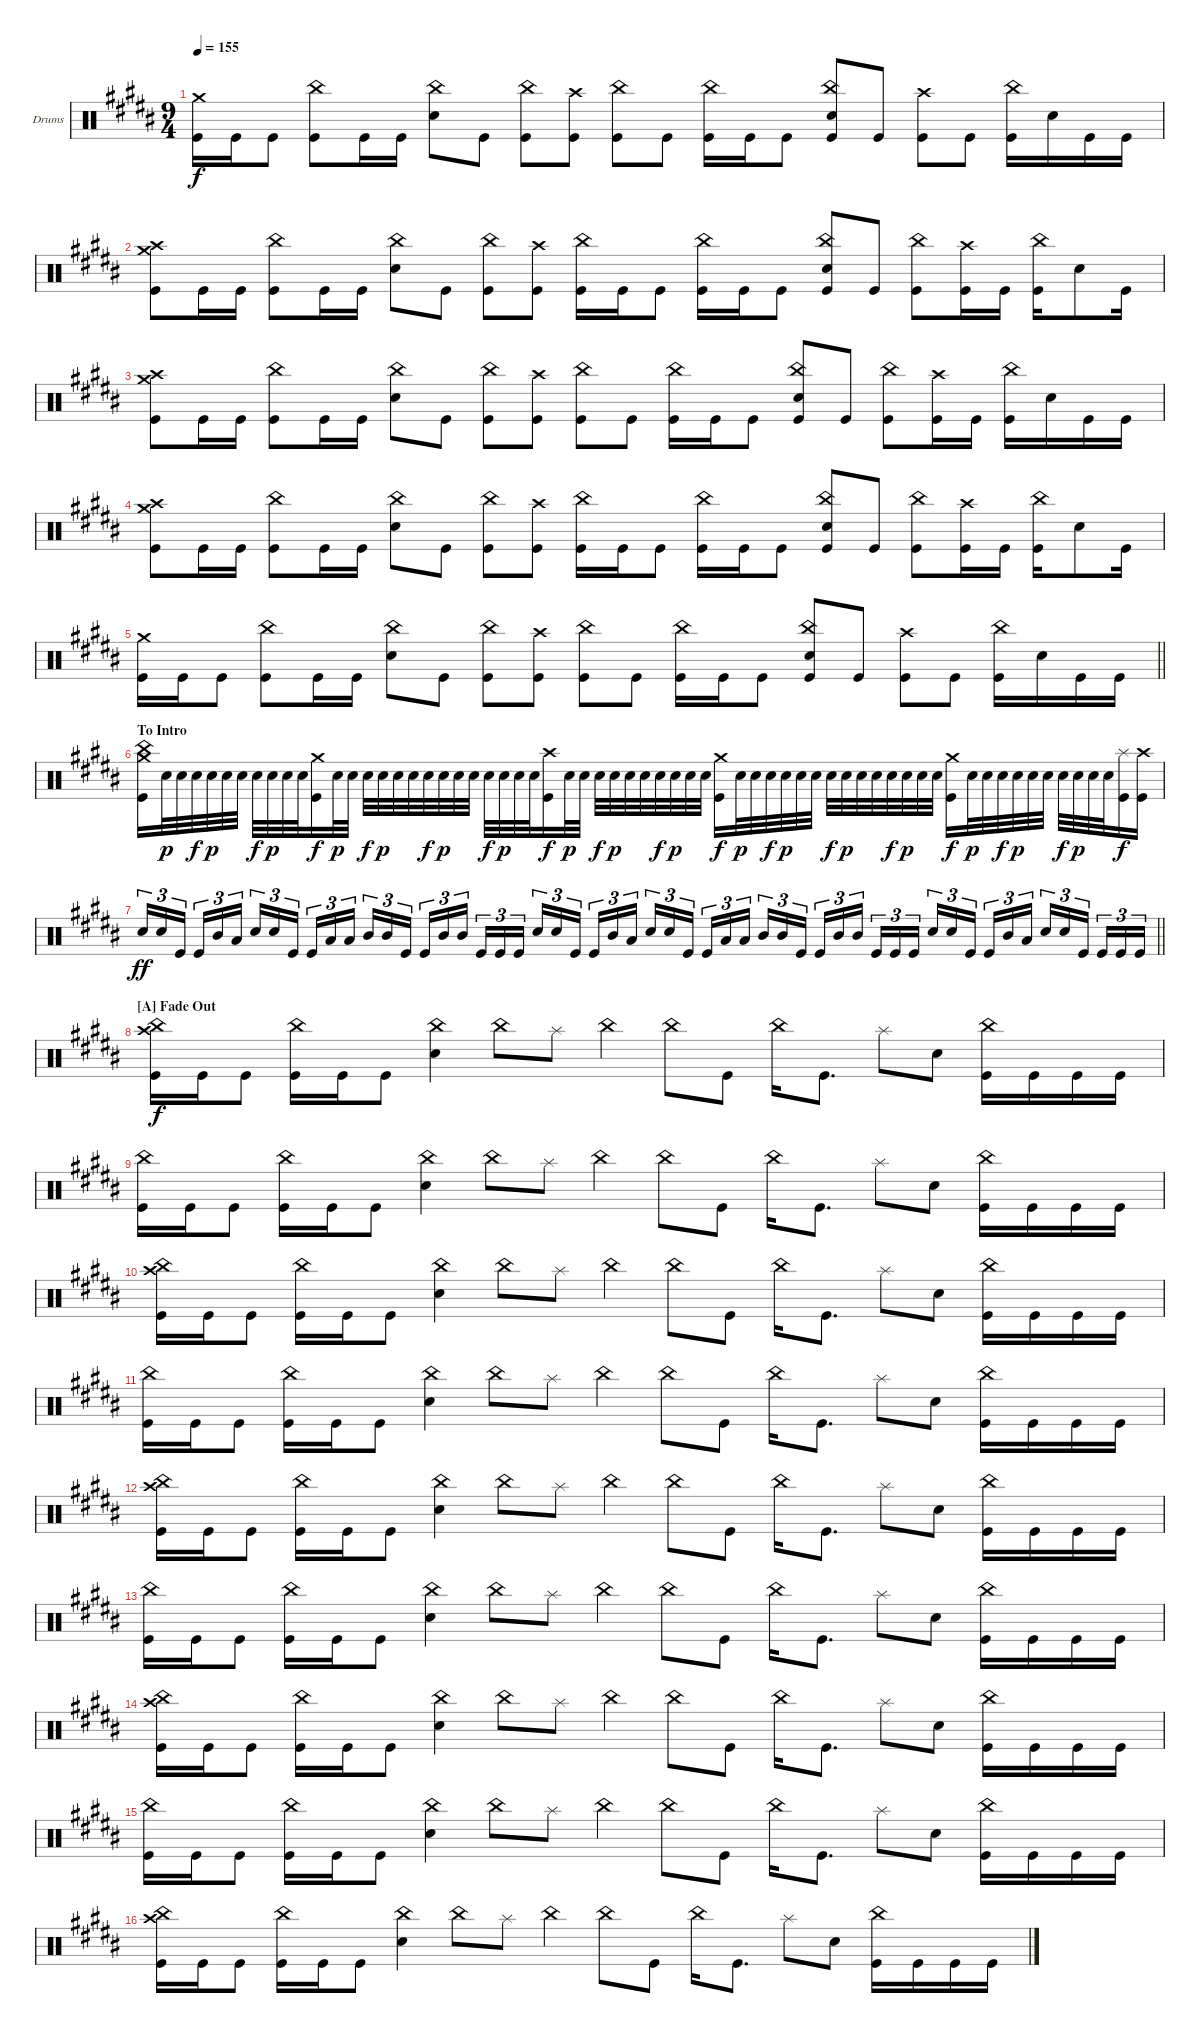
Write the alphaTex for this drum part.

\bracketExtendMode groupsimilarinstruments
\firstSystemTrackNameOrientation horizontal
\otherSystemsTrackNameOrientation horizontal
\track ("Navene Koperweis" "Drums") {instrument percussion}
\staff {score}
\articulation defaults
\ts (9 4)
\tempo 155
\clef neutral
\ks b
("Crash medium (hit)" "Kick (hit)").16{dy f} "Kick (hit)".16 "Kick (hit)".8 ("China (hit)" "Kick (hit)").8 "Kick (hit)".16 "Kick (hit)".16 ("China (hit)" "Snare (hit) 2").8 "Kick (hit)".8 ("China (hit)" "Kick (hit)").8 ("Crash high (hit)" "Kick (hit)").8 ("China (hit)" "Kick (hit)").8 "Kick (hit)".8 ("China (hit)" "Kick (hit)").16 "Kick (hit)".16 "Kick (hit)".8 ("China (hit)" "Snare (hit) 2" "Kick (hit)").8 "Kick (hit)".8 ("Crash high (hit)" "Kick (hit)").8 "Kick (hit)".8 ("China (hit)" "Kick (hit)").16 "Snare (hit) 2".16 "Kick (hit)".16 "Kick (hit)".16 |
("Crash medium (hit)" "Crash high (hit)" "Kick (hit)").8 "Kick (hit)".16 "Kick (hit)".16 ("China (hit)" "Kick (hit)").8 "Kick (hit)".16 "Kick (hit)".16 ("China (hit)" "Snare (hit) 2").8 "Kick (hit)".8 ("China (hit)" "Kick (hit)").8 ("Crash high (hit)" "Kick (hit)").8 ("China (hit)" "Kick (hit)").16 "Kick (hit)".16 "Kick (hit)".8 ("China (hit)" "Kick (hit)").16 "Kick (hit)".16 "Kick (hit)".8 ("China (hit)" "Snare (hit) 2" "Kick (hit)").8 "Kick (hit)".8 ("China (hit)" "Kick (hit)").8 ("Crash high (hit)" "Kick (hit)").16 "Kick (hit)".16 ("China (hit)" "Kick (hit)").16 "Snare (hit) 2".8 "Kick (hit)".16 |
("Crash medium (hit)" "Crash high (hit)" "Kick (hit)").8 "Kick (hit)".16 "Kick (hit)".16 ("China (hit)" "Kick (hit)").8 "Kick (hit)".16 "Kick (hit)".16 ("China (hit)" "Snare (hit) 2").8 "Kick (hit)".8 ("China (hit)" "Kick (hit)").8 ("Crash high (hit)" "Kick (hit)").8 ("China (hit)" "Kick (hit)").8 "Kick (hit)".8 ("China (hit)" "Kick (hit)").16 "Kick (hit)".16 "Kick (hit)".8 ("China (hit)" "Snare (hit) 2" "Kick (hit)").8 "Kick (hit)".8 ("China (hit)" "Kick (hit)").8 ("Crash high (hit)" "Kick (hit)").16 "Kick (hit)".16 ("China (hit)" "Kick (hit)").16 "Snare (hit) 2".16 "Kick (hit)".16 "Kick (hit)".16 |
("Crash medium (hit)" "Crash high (hit)" "Kick (hit)").8 "Kick (hit)".16 "Kick (hit)".16 ("China (hit)" "Kick (hit)").8 "Kick (hit)".16 "Kick (hit)".16 ("China (hit)" "Snare (hit) 2").8 "Kick (hit)".8 ("China (hit)" "Kick (hit)").8 ("Crash high (hit)" "Kick (hit)").8 ("China (hit)" "Kick (hit)").16 "Kick (hit)".16 "Kick (hit)".8 ("China (hit)" "Kick (hit)").16 "Kick (hit)".16 "Kick (hit)".8 ("China (hit)" "Snare (hit) 2" "Kick (hit)").8 "Kick (hit)".8 ("China (hit)" "Kick (hit)").8 ("Crash high (hit)" "Kick (hit)").16 "Kick (hit)".16 ("China (hit)" "Kick (hit)").16 "Snare (hit) 2".8 "Kick (hit)".16 |
\barLineRight lightlight
("Crash medium (hit)" "Kick (hit)").16 "Kick (hit)".16 "Kick (hit)".8 ("China (hit)" "Kick (hit)").8 "Kick (hit)".16 "Kick (hit)".16 ("China (hit)" "Snare (hit) 2").8 "Kick (hit)".8 ("China (hit)" "Kick (hit)").8 ("Crash high (hit)" "Kick (hit)").8 ("China (hit)" "Kick (hit)").8 "Kick (hit)".8 ("China (hit)" "Kick (hit)").16 "Kick (hit)".16 "Kick (hit)".8 ("China (hit)" "Snare (hit) 2" "Kick (hit)").8 "Kick (hit)".8 ("Crash high (hit)" "Kick (hit)").8 "Kick (hit)".8 ("China (hit)" "Kick (hit)").16 "Snare (hit) 2".16 "Kick (hit)".16 "Kick (hit)".16 |
\section ("" "To Intro")
("Crash medium (hit)" "China (hit)" "Kick (hit)").16 "Snare (hit) 2".32{dy p} "Snare (hit) 2".32 "Snare (hit) 2".32{dy f} "Snare (hit) 2".32{dy p} "Snare (hit) 2".32 "Snare (hit) 2".32 "Snare (hit) 2".32{dy f} "Snare (hit) 2".32{dy p} "Snare (hit) 2".32 "Snare (hit) 2".32 ("Crash medium (hit)" "Kick (hit)").16{dy f} "Snare (hit) 2".32{dy p} "Snare (hit) 2".32 "Snare (hit) 2".32{dy f} "Snare (hit) 2".32{dy p} "Snare (hit) 2".32 "Snare (hit) 2".32 "Snare (hit) 2".32{dy f} "Snare (hit) 2".32{dy p} "Snare (hit) 2".32 "Snare (hit) 2".32 "Snare (hit) 2".32{dy f} "Snare (hit) 2".32{dy p} "Snare (hit) 2".32 "Snare (hit) 2".32 ("Crash high (hit)" "Kick (hit)").16{dy f} "Snare (hit) 2".32{dy p} "Snare (hit) 2".32 "Snare (hit) 2".32{dy f} "Snare (hit) 2".32{dy p} "Snare (hit) 2".32 "Snare (hit) 2".32 "Snare (hit) 2".32{dy f} "Snare (hit) 2".32{dy p} "Snare (hit) 2".32 "Snare (hit) 2".32 ("Crash medium (hit)" "Kick (hit)").16{dy f} "Snare (hit) 2".32{dy p} "Snare (hit) 2".32 "Snare (hit) 2".32{dy f} "Snare (hit) 2".32{dy p} "Snare (hit) 2".32 "Snare (hit) 2".32 "Snare (hit) 2".32{dy f} "Snare (hit) 2".32{dy p} "Snare (hit) 2".32 "Snare (hit) 2".32 "Snare (hit) 2".32{dy f} "Snare (hit) 2".32{dy p} "Snare (hit) 2".32 "Snare (hit) 2".32 ("Crash medium (hit)" "Kick (hit)").16{dy f} "Snare (hit) 2".32{dy p} "Snare (hit) 2".32 "Snare (hit) 2".32{dy f} "Snare (hit) 2".32{dy p} "Snare (hit) 2".32 "Snare (hit) 2".32 "Snare (hit) 2".32{dy f} "Snare (hit) 2".32{dy p} "Snare (hit) 2".32 "Snare (hit) 2".32 ("Splash (hit)" "Kick (hit)").16{dy f} ("Crash high (hit)" "Kick (hit)").16 |
\barLineRight lightlight "Snare (hit) 2".16{tu (3 2) dy ff} "Snare (hit) 2".16{tu (3 2)} "Kick (hit)".16{tu (3 2)} "Kick (hit)".16{tu (3 2)} "Mid Tom (hit)".16{tu (3 2)} "Low Tom (hit)".16{tu (3 2)} "Snare (hit) 2".16{tu (3 2)} "Snare (hit) 2".16{tu (3 2)} "Kick (hit)".16{tu (3 2)} "Kick (hit)".16{tu (3 2)} "Low Tom (hit)".16{tu (3 2)} "Low Tom (hit)".16{tu (3 2)} "Mid Tom (hit)".16{tu (3 2)} "Mid Tom (hit)".16{tu (3 2)} "Kick (hit)".16{tu (3 2)} "Kick (hit)".16{tu (3 2)} "Mid Tom (hit)".16{tu (3 2)} "Mid Tom (hit)".16{tu (3 2)} "Kick (hit)".16{tu (3 2)} "Kick (hit)".16{tu (3 2)} "Kick (hit)".16{tu (3 2)} "Snare (hit) 2".16{tu (3 2)} "Snare (hit) 2".16{tu (3 2)} "Kick (hit)".16{tu (3 2)} "Kick (hit)".16{tu (3 2)} "Mid Tom (hit)".16{tu (3 2)} "Low Tom (hit)".16{tu (3 2)} "Snare (hit) 2".16{tu (3 2)} "Snare (hit) 2".16{tu (3 2)} "Kick (hit)".16{tu (3 2)} "Kick (hit)".16{tu (3 2)} "Low Tom (hit)".16{tu (3 2)} "Low Tom (hit)".16{tu (3 2)} "Mid Tom (hit)".16{tu (3 2)} "Mid Tom (hit)".16{tu (3 2)} "Kick (hit)".16{tu (3 2)} "Kick (hit)".16{tu (3 2)} "Mid Tom (hit)".16{tu (3 2)} "Mid Tom (hit)".16{tu (3 2)} "Kick (hit)".16{tu (3 2)} "Kick (hit)".16{tu (3 2)} "Kick (hit)".16{tu (3 2)} "Snare (hit) 2".16{tu (3 2)} "Snare (hit) 2".16{tu (3 2)} "Kick (hit)".16{tu (3 2)} "Kick (hit)".16{tu (3 2)} "Mid Tom (hit)".16{tu (3 2)} "Low Tom (hit)".16{tu (3 2)} "Snare (hit) 2".16{tu (3 2)} "Snare (hit) 2".16{tu (3 2)} "Kick (hit)".16{tu (3 2)} "Kick (hit)".16{tu (3 2)} "Kick (hit)".16{tu (3 2)} "Kick (hit)".16{tu (3 2)}
|
\section ("A" "Fade Out")
("China (hit)" "Crash high (hit)" "Kick (hit)").16{dy f} "Kick (hit)".16 "Kick (hit)".8 ("China (hit)" "Kick (hit)").16 "Kick (hit)".16 "Kick (hit)".8 ("China (hit)" "Snare (hit) 2").4 "China (hit)".8 "Splash (hit)".8 "China (hit)".4 "China (hit)".8 "Kick (hit)".8 "China (hit)".16 "Kick (hit)".8{d} "Splash (hit)".8 "Snare (hit) 2".8 ("China (hit)" "Kick (hit)").16 "Kick (hit)".16 "Kick (hit)".16 "Kick (hit)".16 |
("China (hit)" "Kick (hit)").16 "Kick (hit)".16 "Kick (hit)".8 ("China (hit)" "Kick (hit)").16 "Kick (hit)".16 "Kick (hit)".8 ("China (hit)" "Snare (hit) 2").4 "China (hit)".8 "Splash (hit)".8 "China (hit)".4 "China (hit)".8 "Kick (hit)".8 "China (hit)".16 "Kick (hit)".8{d} "Splash (hit)".8 "Snare (hit) 2".8 ("China (hit)" "Kick (hit)").16 "Kick (hit)".16 "Kick (hit)".16 "Kick (hit)".16 |
("China (hit)" "Crash high (hit)" "Kick (hit)").16 "Kick (hit)".16 "Kick (hit)".8 ("China (hit)" "Kick (hit)").16 "Kick (hit)".16 "Kick (hit)".8 ("China (hit)" "Snare (hit) 2").4 "China (hit)".8 "Splash (hit)".8 "China (hit)".4 "China (hit)".8 "Kick (hit)".8 "China (hit)".16 "Kick (hit)".8{d} "Splash (hit)".8 "Snare (hit) 2".8 ("China (hit)" "Kick (hit)").16 "Kick (hit)".16 "Kick (hit)".16 "Kick (hit)".16 |
("China (hit)" "Kick (hit)").16 "Kick (hit)".16 "Kick (hit)".8 ("China (hit)" "Kick (hit)").16 "Kick (hit)".16 "Kick (hit)".8 ("China (hit)" "Snare (hit) 2").4 "China (hit)".8 "Splash (hit)".8 "China (hit)".4 "China (hit)".8 "Kick (hit)".8 "China (hit)".16 "Kick (hit)".8{d} "Splash (hit)".8 "Snare (hit) 2".8 ("China (hit)" "Kick (hit)").16 "Kick (hit)".16 "Kick (hit)".16 "Kick (hit)".16 |
("China (hit)" "Crash high (hit)" "Kick (hit)").16 "Kick (hit)".16 "Kick (hit)".8 ("China (hit)" "Kick (hit)").16 "Kick (hit)".16 "Kick (hit)".8 ("China (hit)" "Snare (hit) 2").4 "China (hit)".8 "Splash (hit)".8 "China (hit)".4 "China (hit)".8 "Kick (hit)".8 "China (hit)".16 "Kick (hit)".8{d} "Splash (hit)".8 "Snare (hit) 2".8 ("China (hit)" "Kick (hit)").16 "Kick (hit)".16 "Kick (hit)".16 "Kick (hit)".16 |
("China (hit)" "Kick (hit)").16 "Kick (hit)".16 "Kick (hit)".8 ("China (hit)" "Kick (hit)").16 "Kick (hit)".16 "Kick (hit)".8 ("China (hit)" "Snare (hit) 2").4 "China (hit)".8 "Splash (hit)".8 "China (hit)".4 "China (hit)".8 "Kick (hit)".8 "China (hit)".16 "Kick (hit)".8{d} "Splash (hit)".8 "Snare (hit) 2".8 ("China (hit)" "Kick (hit)").16 "Kick (hit)".16 "Kick (hit)".16 "Kick (hit)".16 |
("China (hit)" "Crash high (hit)" "Kick (hit)").16 "Kick (hit)".16 "Kick (hit)".8 ("China (hit)" "Kick (hit)").16 "Kick (hit)".16 "Kick (hit)".8 ("China (hit)" "Snare (hit) 2").4 "China (hit)".8 "Splash (hit)".8 "China (hit)".4 "China (hit)".8 "Kick (hit)".8 "China (hit)".16 "Kick (hit)".8{d} "Splash (hit)".8 "Snare (hit) 2".8 ("China (hit)" "Kick (hit)").16 "Kick (hit)".16 "Kick (hit)".16 "Kick (hit)".16 |
("China (hit)" "Kick (hit)").16 "Kick (hit)".16 "Kick (hit)".8 ("China (hit)" "Kick (hit)").16 "Kick (hit)".16 "Kick (hit)".8 ("China (hit)" "Snare (hit) 2").4 "China (hit)".8 "Splash (hit)".8 "China (hit)".4 "China (hit)".8 "Kick (hit)".8 "China (hit)".16 "Kick (hit)".8{d} "Splash (hit)".8 "Snare (hit) 2".8 ("China (hit)" "Kick (hit)").16 "Kick (hit)".16 "Kick (hit)".16 "Kick (hit)".16 |
("China (hit)" "Crash high (hit)" "Kick (hit)").16 "Kick (hit)".16 "Kick (hit)".8 ("China (hit)" "Kick (hit)").16 "Kick (hit)".16 "Kick (hit)".8 ("China (hit)" "Snare (hit) 2").4 "China (hit)".8 "Splash (hit)".8 "China (hit)".4 "China (hit)".8 "Kick (hit)".8 "China (hit)".16 "Kick (hit)".8{d} "Splash (hit)".8 "Snare (hit) 2".8 ("China (hit)" "Kick (hit)").16 "Kick (hit)".16 "Kick (hit)".16 "Kick (hit)".16
